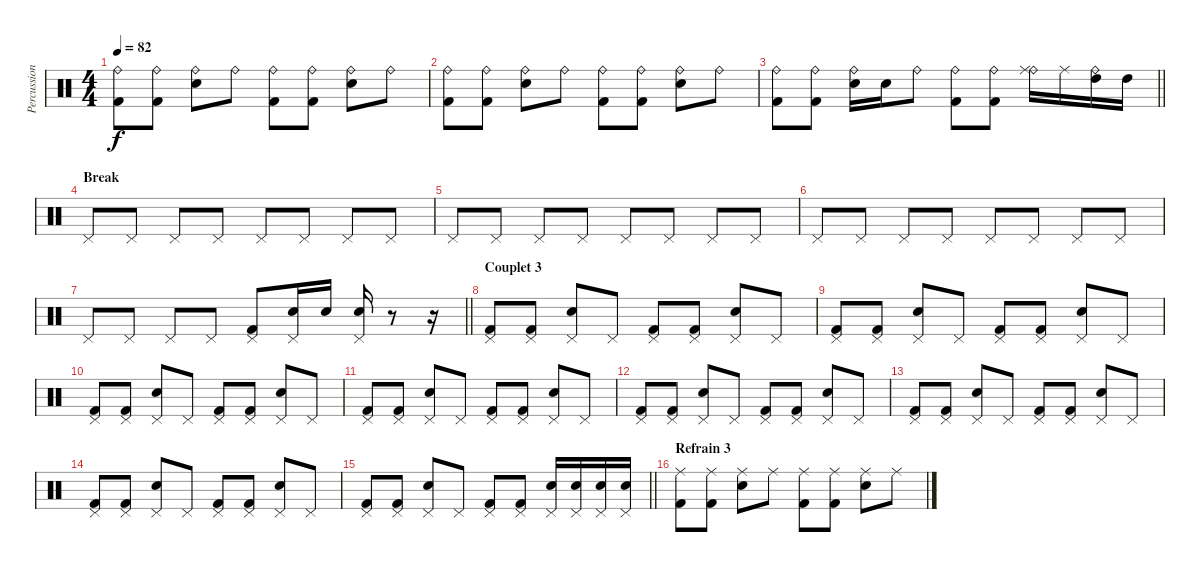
\track ("Percussions" "Percussion") {instrument percussion}
\staff
\articulation defaults
\ts (4 4)
\tempo 82
\clef neutral
\ks c
("Ride (bell)" "Kick (hit) 2").8{dy f} ("Ride (bell)" "Kick (hit) 2").8 ("Ride (bell)" "Electric Snare (hit)").8 "Ride (bell)".8 ("Ride (bell)" "Kick (hit) 2").8 ("Ride (bell)" "Kick (hit) 2").8 ("Ride (bell)" "Electric Snare (hit)").8 "Ride (bell)".8 |
("Ride (bell)" "Kick (hit) 2").8 ("Ride (bell)" "Kick (hit) 2").8 ("Ride (bell)" "Electric Snare (hit)").8 "Ride (bell)".8 ("Ride (bell)" "Kick (hit) 2").8 ("Ride (bell)" "Kick (hit) 2").8 ("Ride (bell)" "Electric Snare (hit)").8 "Ride (bell)".8 |
\barLineRight lightlight
("Ride (bell)" "Kick (hit) 2").8 ("Ride (bell)" "Kick (hit) 2").8 ("Ride (bell)" "Electric Snare (hit)").16 "Electric Snare (hit)".16 "Ride (bell)".8 ("Ride (bell)" "Kick (hit) 2").8 ("Ride (bell)" "Kick (hit) 2").8 ("Ride (bell)" "Ride (middle)").16 "Ride (middle)".16 ("Ride (bell)" "High Tom (hit)").16 "High Tom (hit)".16 |
\section ("" "Break")
"Pedal Hi-Hat (hit)".8 "Pedal Hi-Hat (hit)".8 "Pedal Hi-Hat (hit)".8 "Pedal Hi-Hat (hit)".8 "Pedal Hi-Hat (hit)".8 "Pedal Hi-Hat (hit)".8 "Pedal Hi-Hat (hit)".8 "Pedal Hi-Hat (hit)".8 |
"Pedal Hi-Hat (hit)".8 "Pedal Hi-Hat (hit)".8 "Pedal Hi-Hat (hit)".8 "Pedal Hi-Hat (hit)".8 "Pedal Hi-Hat (hit)".8 "Pedal Hi-Hat (hit)".8 "Pedal Hi-Hat (hit)".8 "Pedal Hi-Hat (hit)".8 |
"Pedal Hi-Hat (hit)".8 "Pedal Hi-Hat (hit)".8 "Pedal Hi-Hat (hit)".8 "Pedal Hi-Hat (hit)".8 "Pedal Hi-Hat (hit)".8 "Pedal Hi-Hat (hit)".8 "Pedal Hi-Hat (hit)".8 "Pedal Hi-Hat (hit)".8 |
\barLineRight lightlight "Pedal Hi-Hat (hit)".8 "Pedal Hi-Hat (hit)".8 "Pedal Hi-Hat (hit)".8 "Pedal Hi-Hat (hit)".8
("Pedal Hi-Hat (hit)" "Kick (hit) 2").8 ("Pedal Hi-Hat (hit)" "Electric Snare (hit)").16 "Electric Snare (hit)".16 ("Pedal Hi-Hat (hit)" "Electric Snare (hit)").16 r.8 r.16 |
\section ("" "Couplet 3")
("Pedal Hi-Hat (hit)" "Kick (hit) 2").8 ("Pedal Hi-Hat (hit)" "Kick (hit) 2").8 ("Pedal Hi-Hat (hit)" "Electric Snare (hit)").8 "Pedal Hi-Hat (hit)".8 ("Pedal Hi-Hat (hit)" "Kick (hit) 2").8 ("Pedal Hi-Hat (hit)" "Kick (hit) 2").8 ("Pedal Hi-Hat (hit)" "Electric Snare (hit)").8 "Pedal Hi-Hat (hit)".8 |
("Pedal Hi-Hat (hit)" "Kick (hit) 2").8 ("Pedal Hi-Hat (hit)" "Kick (hit) 2").8 ("Pedal Hi-Hat (hit)" "Electric Snare (hit)").8 "Pedal Hi-Hat (hit)".8 ("Pedal Hi-Hat (hit)" "Kick (hit) 2").8 ("Pedal Hi-Hat (hit)" "Kick (hit) 2").8 ("Pedal Hi-Hat (hit)" "Electric Snare (hit)").8 "Pedal Hi-Hat (hit)".8 |
("Pedal Hi-Hat (hit)" "Kick (hit) 2").8 ("Pedal Hi-Hat (hit)" "Kick (hit) 2").8 ("Pedal Hi-Hat (hit)" "Electric Snare (hit)").8 "Pedal Hi-Hat (hit)".8 ("Pedal Hi-Hat (hit)" "Kick (hit) 2").8 ("Pedal Hi-Hat (hit)" "Kick (hit) 2").8 ("Pedal Hi-Hat (hit)" "Electric Snare (hit)").8 "Pedal Hi-Hat (hit)".8 |
("Pedal Hi-Hat (hit)" "Kick (hit) 2").8 ("Pedal Hi-Hat (hit)" "Kick (hit) 2").8 ("Pedal Hi-Hat (hit)" "Electric Snare (hit)").8 "Pedal Hi-Hat (hit)".8 ("Pedal Hi-Hat (hit)" "Kick (hit) 2").8 ("Pedal Hi-Hat (hit)" "Kick (hit) 2").8 ("Pedal Hi-Hat (hit)" "Electric Snare (hit)").8 "Pedal Hi-Hat (hit)".8 |
("Pedal Hi-Hat (hit)" "Kick (hit) 2").8 ("Pedal Hi-Hat (hit)" "Kick (hit) 2").8 ("Pedal Hi-Hat (hit)" "Electric Snare (hit)").8 "Pedal Hi-Hat (hit)".8 ("Pedal Hi-Hat (hit)" "Kick (hit) 2").8 ("Pedal Hi-Hat (hit)" "Kick (hit) 2").8 ("Pedal Hi-Hat (hit)" "Electric Snare (hit)").8 "Pedal Hi-Hat (hit)".8 |
("Pedal Hi-Hat (hit)" "Kick (hit) 2").8 ("Pedal Hi-Hat (hit)" "Kick (hit) 2").8 ("Pedal Hi-Hat (hit)" "Electric Snare (hit)").8 "Pedal Hi-Hat (hit)".8 ("Pedal Hi-Hat (hit)" "Kick (hit) 2").8 ("Pedal Hi-Hat (hit)" "Kick (hit) 2").8 ("Pedal Hi-Hat (hit)" "Electric Snare (hit)").8 "Pedal Hi-Hat (hit)".8 |
("Pedal Hi-Hat (hit)" "Kick (hit) 2").8 ("Pedal Hi-Hat (hit)" "Kick (hit) 2").8 ("Pedal Hi-Hat (hit)" "Electric Snare (hit)").8 "Pedal Hi-Hat (hit)".8 ("Pedal Hi-Hat (hit)" "Kick (hit) 2").8 ("Pedal Hi-Hat (hit)" "Kick (hit) 2").8 ("Pedal Hi-Hat (hit)" "Electric Snare (hit)").8 "Pedal Hi-Hat (hit)".8 |
\barLineRight lightlight
("Pedal Hi-Hat (hit)" "Kick (hit) 2").8 ("Pedal Hi-Hat (hit)" "Kick (hit) 2").8 ("Pedal Hi-Hat (hit)" "Electric Snare (hit)").8 "Pedal Hi-Hat (hit)".8 ("Pedal Hi-Hat (hit)" "Kick (hit) 2").8 ("Pedal Hi-Hat (hit)" "Kick (hit) 2").8 ("Pedal Hi-Hat (hit)" "Electric Snare (hit)").16 ("Pedal Hi-Hat (hit)" "Electric Snare (hit)").16 ("Pedal Hi-Hat (hit)" "Electric Snare (hit)").16 ("Pedal Hi-Hat (hit)" "Electric Snare (hit)").16 |
\section ("" "Refrain 3")
("Ride (middle)" "Kick (hit) 2").8 ("Ride (middle)" "Kick (hit) 2").8 ("Ride (middle)" "Electric Snare (hit)").8 "Ride (middle)".8 ("Ride (middle)" "Kick (hit) 2").8 ("Ride (middle)" "Kick (hit) 2").8 ("Ride (middle)" "Electric Snare (hit)").8 "Ride (middle)".8
